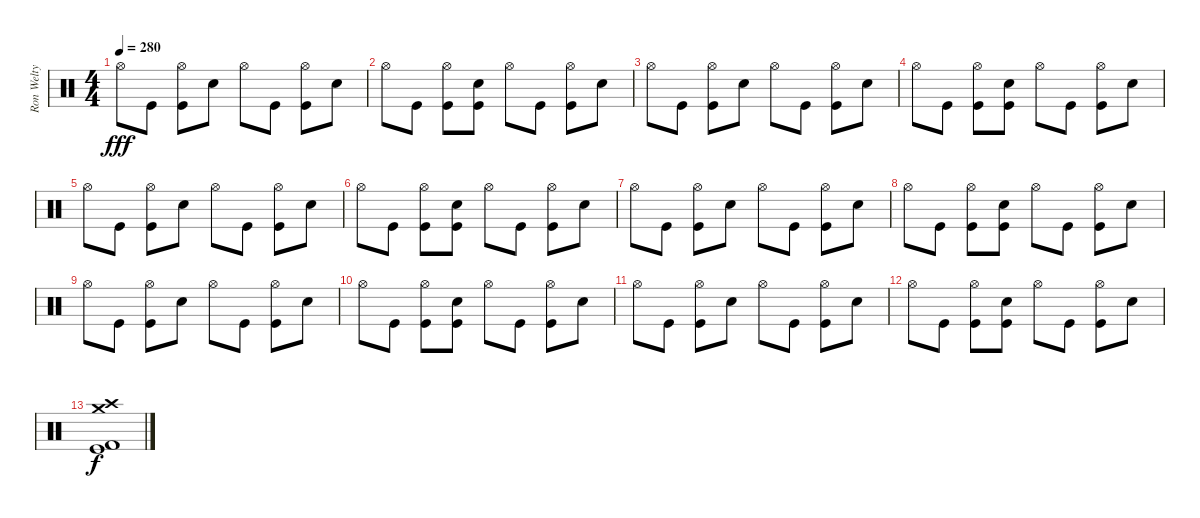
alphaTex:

\track ("Ron Welty" "Ron Welty") {instrument percussion}
\staff {score}
\articulation defaults
\ts (4 4)
\tempo 280
\clef neutral
\ks c "Hi-Hat (open)".8{dy fff} "Kick (hit)".8
("Hi-Hat (open)" "Kick (hit)").8 "Snare (hit) 2".8 "Hi-Hat (open)".8 "Kick (hit)".8 ("Hi-Hat (open)" "Kick (hit)").8 "Snare (hit) 2".8 |
"Hi-Hat (open)".8 "Kick (hit)".8 ("Hi-Hat (open)" "Kick (hit)").8 ("Snare (hit) 2" "Kick (hit)").8 "Hi-Hat (open)".8 "Kick (hit)".8 ("Hi-Hat (open)" "Kick (hit)").8 "Snare (hit) 2".8 |
"Hi-Hat (open)".8 "Kick (hit)".8 ("Hi-Hat (open)" "Kick (hit)").8 "Snare (hit) 2".8 "Hi-Hat (open)".8 "Kick (hit)".8 ("Hi-Hat (open)" "Kick (hit)").8 "Snare (hit) 2".8 |
"Hi-Hat (open)".8 "Kick (hit)".8 ("Hi-Hat (open)" "Kick (hit)").8 ("Snare (hit) 2" "Kick (hit)").8 "Hi-Hat (open)".8 "Kick (hit)".8 ("Hi-Hat (open)" "Kick (hit)").8 "Snare (hit) 2".8 |
"Hi-Hat (open)".8 "Kick (hit)".8 ("Hi-Hat (open)" "Kick (hit)").8 "Snare (hit) 2".8 "Hi-Hat (open)".8 "Kick (hit)".8 ("Hi-Hat (open)" "Kick (hit)").8 "Snare (hit) 2".8 |
"Hi-Hat (open)".8 "Kick (hit)".8 ("Hi-Hat (open)" "Kick (hit)").8 ("Snare (hit) 2" "Kick (hit)").8 "Hi-Hat (open)".8 "Kick (hit)".8 ("Hi-Hat (open)" "Kick (hit)").8 "Snare (hit) 2".8 |
"Hi-Hat (open)".8 "Kick (hit)".8 ("Hi-Hat (open)" "Kick (hit)").8 "Snare (hit) 2".8 "Hi-Hat (open)".8 "Kick (hit)".8 ("Hi-Hat (open)" "Kick (hit)").8 "Snare (hit) 2".8 |
"Hi-Hat (open)".8 "Kick (hit)".8 ("Hi-Hat (open)" "Kick (hit)").8 ("Snare (hit) 2" "Kick (hit)").8 "Hi-Hat (open)".8 "Kick (hit)".8 ("Hi-Hat (open)" "Kick (hit)").8 "Snare (hit) 2".8 |
"Hi-Hat (open)".8 "Kick (hit)".8 ("Hi-Hat (open)" "Kick (hit)").8 "Snare (hit) 2".8 "Hi-Hat (open)".8 "Kick (hit)".8 ("Hi-Hat (open)" "Kick (hit)").8 "Snare (hit) 2".8 |
"Hi-Hat (open)".8 "Kick (hit)".8 ("Hi-Hat (open)" "Kick (hit)").8 ("Snare (hit) 2" "Kick (hit)").8 "Hi-Hat (open)".8 "Kick (hit)".8 ("Hi-Hat (open)" "Kick (hit)").8 "Snare (hit) 2".8 |
"Hi-Hat (open)".8 "Kick (hit)".8 ("Hi-Hat (open)" "Kick (hit)").8 "Snare (hit) 2".8 "Hi-Hat (open)".8 "Kick (hit)".8 ("Hi-Hat (open)" "Kick (hit)").8 "Snare (hit) 2".8 |
"Hi-Hat (open)".8 "Kick (hit)".8 ("Hi-Hat (open)" "Kick (hit)").8 ("Snare (hit) 2" "Kick (hit)").8 "Hi-Hat (open)".8 "Kick (hit)".8 ("Hi-Hat (open)" "Kick (hit)").8 "Snare (hit) 2".8 |
("Crash medium (hit)" "Crash high (hit)" "Kick (hit)" "Kick (hit) 2").1{dy f}
